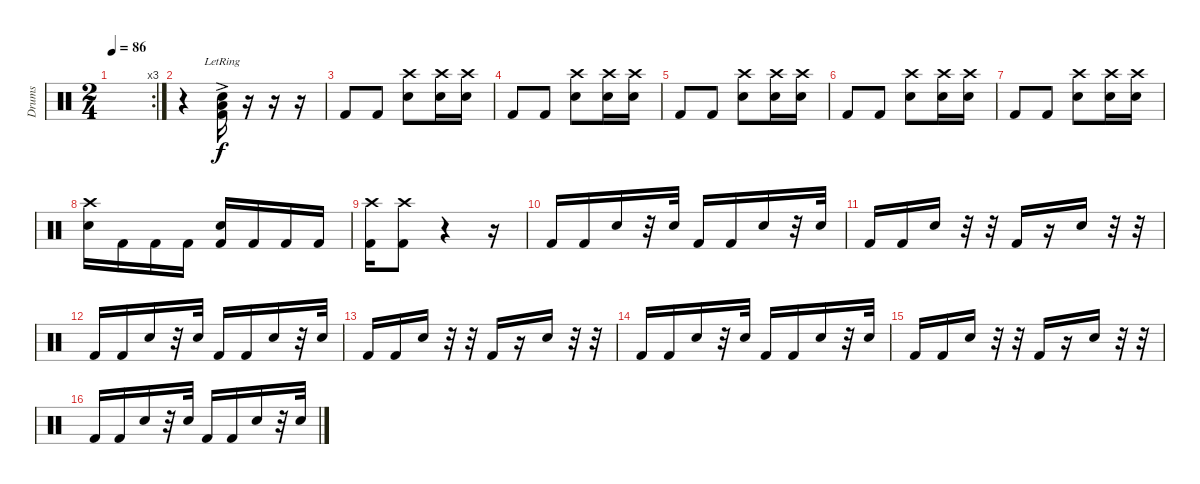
\track ("Drums" "Drums") {instrument percussion}
\staff {score}
\articulation defaults
\rc 3
\ts (2 4)
\tempo 86
\clef neutral
\ks c
|
r.4 ("Snare (hit) 2" "Kick (hit) 2"{ac lr} "Low Floor Tom (hit)").16 r.16 r.16 r.16 |
"Kick (hit) 2".8{dy f} "Kick (hit) 2".8 ("Crash high (hit)" "Snare (hit) 2").8 ("Crash high (hit)" "Snare (hit) 2").16 ("Crash high (hit)" "Snare (hit) 2").16 |
"Kick (hit) 2".8 "Kick (hit) 2".8 ("Crash high (hit)" "Snare (hit) 2").8 ("Crash high (hit)" "Snare (hit) 2").16 ("Crash high (hit)" "Snare (hit) 2").16 |
"Kick (hit) 2".8 "Kick (hit) 2".8 ("Crash high (hit)" "Snare (hit) 2").8 ("Crash high (hit)" "Snare (hit) 2").16 ("Crash high (hit)" "Snare (hit) 2").16 |
"Kick (hit) 2".8 "Kick (hit) 2".8 ("Crash high (hit)" "Snare (hit) 2").8 ("Crash high (hit)" "Snare (hit) 2").16 ("Crash high (hit)" "Snare (hit) 2").16 |
"Kick (hit) 2".8 "Kick (hit) 2".8 ("Crash high (hit)" "Snare (hit) 2").8 ("Crash high (hit)" "Snare (hit) 2").16 ("Crash high (hit)" "Snare (hit) 2").16 |
("Crash high (hit)" "Snare (hit) 2").16 "Kick (hit) 2".16 "Kick (hit) 2".16 "Kick (hit) 2".16 ("Snare (hit) 2" "Kick (hit) 2").16 "Kick (hit) 2".16 "Kick (hit) 2".16 "Kick (hit) 2".16 |
("Crash high (hit)" "Kick (hit) 2").16 ("Crash high (hit)" "Kick (hit) 2").8 r.4 r.16 |
"Kick (hit) 2".16 "Kick (hit) 2".16 "Snare (hit) 2".16 r.32 "Snare (hit) 2".32 "Kick (hit) 2".16 "Kick (hit) 2".16 "Snare (hit) 2".16 r.32 "Snare (hit) 2".32 |
"Kick (hit) 2".16 "Kick (hit) 2".16 "Snare (hit) 2".16 r.32 r.32 "Kick (hit) 2".16 r.16 "Snare (hit) 2".16 r.32 r.32 |
"Kick (hit) 2".16 "Kick (hit) 2".16 "Snare (hit) 2".16 r.32 "Snare (hit) 2".32 "Kick (hit) 2".16 "Kick (hit) 2".16 "Snare (hit) 2".16 r.32 "Snare (hit) 2".32 |
"Kick (hit) 2".16 "Kick (hit) 2".16 "Snare (hit) 2".16 r.32 r.32 "Kick (hit) 2".16 r.16 "Snare (hit) 2".16 r.32 r.32 |
"Kick (hit) 2".16 "Kick (hit) 2".16 "Snare (hit) 2".16 r.32 "Snare (hit) 2".32 "Kick (hit) 2".16 "Kick (hit) 2".16 "Snare (hit) 2".16 r.32 "Snare (hit) 2".32 |
"Kick (hit) 2".16 "Kick (hit) 2".16 "Snare (hit) 2".16 r.32 r.32 "Kick (hit) 2".16 r.16 "Snare (hit) 2".16 r.32 r.32 |
"Kick (hit) 2".16 "Kick (hit) 2".16 "Snare (hit) 2".16 r.32 "Snare (hit) 2".32 "Kick (hit) 2".16 "Kick (hit) 2".16 "Snare (hit) 2".16 r.32 "Snare (hit) 2".32
